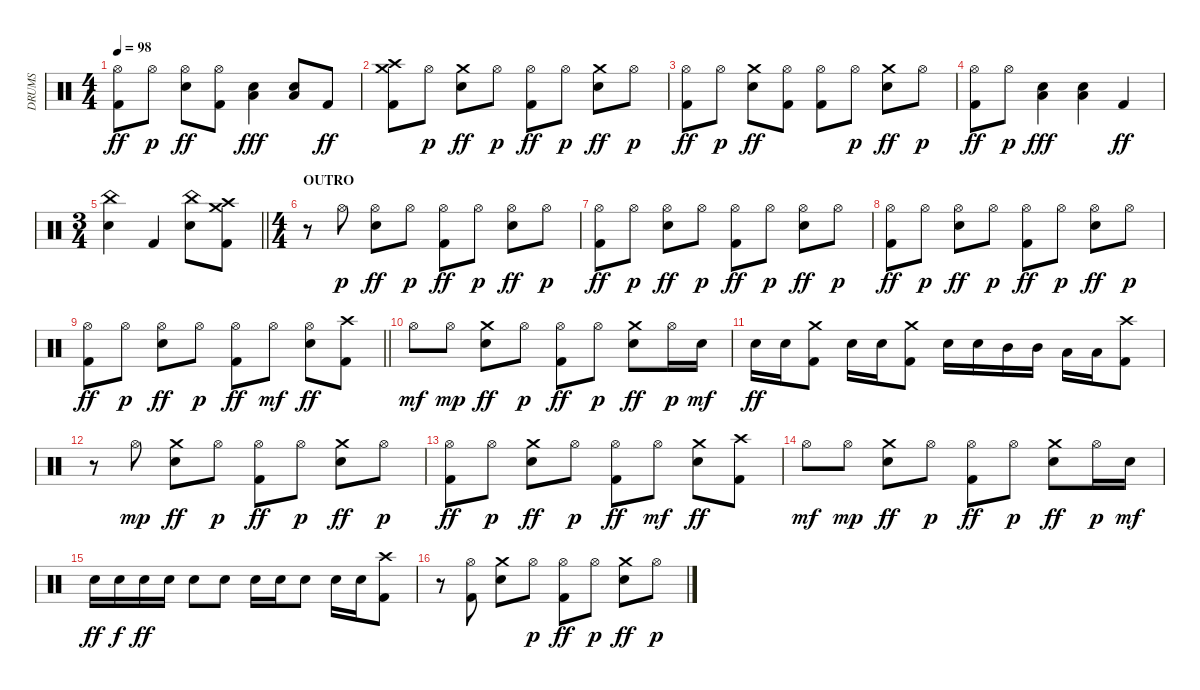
\track ("DRUMS" "DRUMS") {instrument percussion}
\staff {score}
\articulation defaults
\ts (4 4)
\tempo 98
\clef neutral
\ks c
("Hi-Hat (open)" "Kick (hit) 2").8{dy ff} "Hi-Hat (open)".8{dy p} ("Hi-Hat (open)" "Snare (hit) 2").8{dy ff} ("Hi-Hat (open)" "Kick (hit) 2").8 ("Snare (hit) 2" "Low Floor Tom (hit)").4{dy fff} ("Snare (hit) 2" "Low Floor Tom (hit)").8 "Kick (hit) 2".8{dy ff} |
("Crash high (hit)" "Crash medium (hit)" "Kick (hit) 2").8 "Hi-Hat (open)".8{dy p} ("Crash medium (hit)" "Snare (hit) 2").8{dy ff} "Hi-Hat (open)".8{dy p} ("Hi-Hat (open)" "Kick (hit) 2").8{dy ff} "Hi-Hat (open)".8{dy p} ("Crash medium (hit)" "Snare (hit) 2").8{dy ff} "Hi-Hat (open)".8{dy p} |
("Hi-Hat (open)" "Kick (hit) 2").8{dy ff} "Hi-Hat (open)".8{dy p} ("Crash medium (hit)" "Snare (hit) 2").8{dy ff} ("Hi-Hat (open)" "Kick (hit) 2").8 ("Hi-Hat (open)" "Kick (hit) 2").8 "Hi-Hat (open)".8{dy p} ("Crash medium (hit)" "Snare (hit) 2").8{dy ff} "Hi-Hat (open)".8{dy p} |
("Hi-Hat (open)" "Kick (hit) 2").8{dy ff} "Hi-Hat (open)".8{dy p} ("Snare (hit) 2" "Low Floor Tom (hit)").4{dy fff} ("Snare (hit) 2" "Low Floor Tom (hit)").4 "Kick (hit) 2".4{dy ff} |
\ts (3 4)
\barLineRight lightlight
("China (hit)" "Snare (hit) 2").4 "Kick (hit) 2".4 ("China (hit)" "Snare (hit) 2").8 ("Crash high (hit)" "Crash medium (hit)" "Kick (hit) 2").8 |
\ts (4 4)
\section ("" "OUTRO")
r.8 "Hi-Hat (open)".8{dy p} ("Hi-Hat (open)" "Snare (hit) 2").8{dy ff} "Hi-Hat (open)".8{dy p} ("Hi-Hat (open)" "Kick (hit) 2").8{dy ff} "Hi-Hat (open)".8{dy p} ("Hi-Hat (open)" "Snare (hit) 2").8{dy ff} "Hi-Hat (open)".8{dy p} |
("Hi-Hat (open)" "Kick (hit) 2").8{dy ff} "Hi-Hat (open)".8{dy p} ("Hi-Hat (open)" "Snare (hit) 2").8{dy ff} "Hi-Hat (open)".8{dy p} ("Hi-Hat (open)" "Kick (hit) 2").8{dy ff} "Hi-Hat (open)".8{dy p} ("Hi-Hat (open)" "Snare (hit) 2").8{dy ff} "Hi-Hat (open)".8{dy p} |
("Hi-Hat (open)" "Kick (hit) 2").8{dy ff} "Hi-Hat (open)".8{dy p} ("Hi-Hat (open)" "Snare (hit) 2").8{dy ff} "Hi-Hat (open)".8{dy p} ("Hi-Hat (open)" "Kick (hit) 2").8{dy ff} "Hi-Hat (open)".8{dy p} ("Hi-Hat (open)" "Snare (hit) 2").8{dy ff} "Hi-Hat (open)".8{dy p} |
\barLineRight lightlight
("Hi-Hat (open)" "Kick (hit) 2").8{dy ff} "Hi-Hat (open)".8{dy p} ("Hi-Hat (open)" "Snare (hit) 2").8{dy ff} "Hi-Hat (open)".8{dy p} ("Hi-Hat (open)" "Kick (hit) 2").8{dy ff} "Hi-Hat (open)".8{dy mf} ("Hi-Hat (open)" "Snare (hit) 2").8{dy ff} ("Crash high (hit)" "Kick (hit) 2").8 |
"Hi-Hat (open)".8{dy mf} "Hi-Hat (open)".8{dy mp} ("Crash medium (hit)" "Snare (hit) 2").8{dy ff} "Hi-Hat (open)".8{dy p} ("Hi-Hat (open)" "Kick (hit) 2").8{dy ff} "Hi-Hat (open)".8{dy p} ("Crash medium (hit)" "Snare (hit) 2").8{dy ff} "Hi-Hat (open)".16{dy p} "Snare (hit) 2".16{dy mf} |
"Snare (hit) 2".16{dy ff} "Snare (hit) 2".16 ("Crash medium (hit)" "Kick (hit) 2").8 "Snare (hit) 2".16 "Snare (hit) 2".16 ("Crash medium (hit)" "Kick (hit) 2").8 "Snare (hit) 2".16 "Snare (hit) 2".16 "Mid Tom (hit)".16 "Mid Tom (hit)".16 "Low Tom (hit)".16 "Low Tom (hit)".16 ("Crash high (hit)" "Kick (hit) 2").8 |
r.8 "Hi-Hat (open)".8{dy mp} ("Crash medium (hit)" "Snare (hit) 2").8{dy ff} "Hi-Hat (open)".8{dy p} ("Hi-Hat (open)" "Kick (hit) 2").8{dy ff} "Hi-Hat (open)".8{dy p} ("Crash medium (hit)" "Snare (hit) 2").8{dy ff} "Hi-Hat (open)".8{dy p} |
("Hi-Hat (open)" "Kick (hit) 2").8{dy ff} "Hi-Hat (open)".8{dy p} ("Crash medium (hit)" "Snare (hit) 2").8{dy ff} "Hi-Hat (open)".8{dy p} ("Hi-Hat (open)" "Kick (hit) 2").8{dy ff} "Hi-Hat (open)".8{dy mf} ("Crash medium (hit)" "Snare (hit) 2").8{dy ff} ("Crash high (hit)" "Kick (hit) 2").8 |
"Hi-Hat (open)".8{dy mf} "Hi-Hat (open)".8{dy mp} ("Crash medium (hit)" "Snare (hit) 2").8{dy ff} "Hi-Hat (open)".8{dy p} ("Hi-Hat (open)" "Kick (hit) 2").8{dy ff} "Hi-Hat (open)".8{dy p} ("Crash medium (hit)" "Snare (hit) 2").8{dy ff} "Hi-Hat (open)".16{dy p} "Snare (hit) 2".16{dy mf} |
"Snare (hit) 2".16{dy ff} "Snare (hit) 2".16{dy f} "Snare (hit) 2".16{dy ff} "Snare (hit) 2".16 "Snare (hit) 2".8 "Snare (hit) 2".8 "Snare (hit) 2".16 "Snare (hit) 2".16 "Snare (hit) 2".8 "Snare (hit) 2".16 "Snare (hit) 2".16 ("Crash high (hit)" "Kick (hit) 2").8 |
r.8 ("Hi-Hat (open)" "Kick (hit) 2").8 ("Crash medium (hit)" "Snare (hit) 2").8 "Hi-Hat (open)".8{dy p} ("Hi-Hat (open)" "Kick (hit) 2").8{dy ff} "Hi-Hat (open)".8{dy p} ("Crash medium (hit)" "Snare (hit) 2").8{dy ff} "Hi-Hat (open)".8{dy p}
